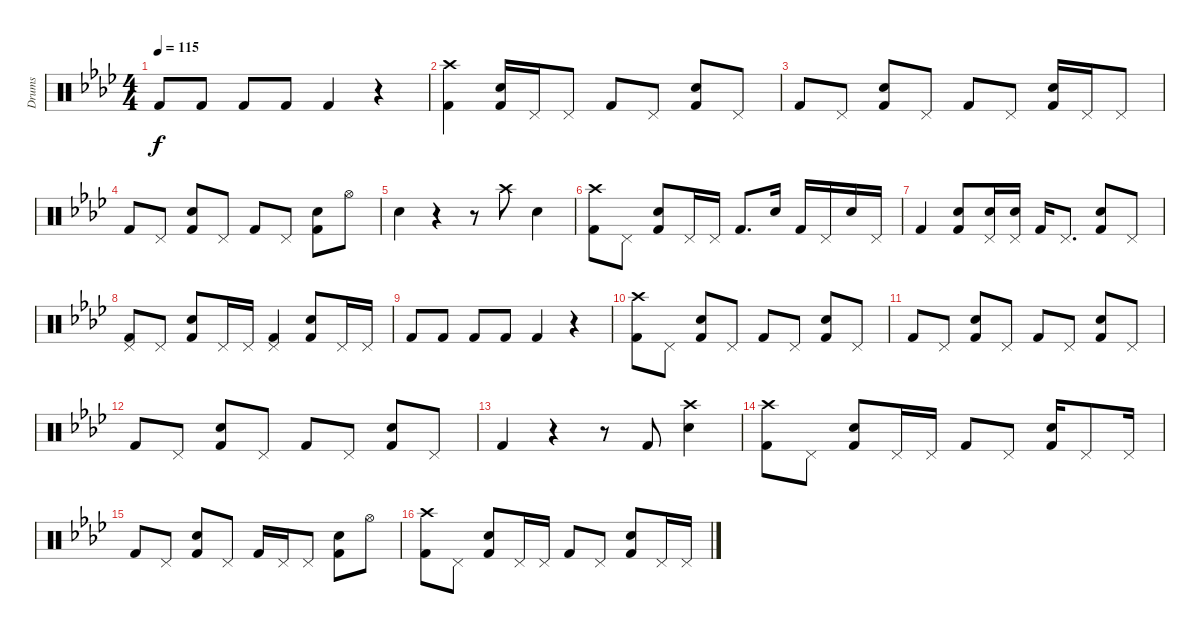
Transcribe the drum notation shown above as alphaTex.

\track ("Drums" "Drums") {instrument percussion}
\staff {score}
\articulation defaults
\ts (4 4)
\tempo 115
\clef neutral
\ks ab "Kick (hit) 2".8{dy f} "Kick (hit) 2".8 "Kick (hit) 2".8 "Kick (hit) 2".8 "Kick (hit) 2".4
r.4 |
("Crash high (hit)" "Kick (hit) 2").4 ("Electric Snare (hit)" "Kick (hit) 2").16 "Pedal Hi-Hat (hit)".16 "Pedal Hi-Hat (hit)".8 "Kick (hit) 2".8 "Pedal Hi-Hat (hit)".8 ("Electric Snare (hit)" "Kick (hit) 2").8 "Pedal Hi-Hat (hit)".8 |
"Kick (hit) 2".8 "Pedal Hi-Hat (hit)".8 ("Electric Snare (hit)" "Kick (hit) 2").8 "Pedal Hi-Hat (hit)".8 "Kick (hit) 2".8 "Pedal Hi-Hat (hit)".8 ("Electric Snare (hit)" "Kick (hit) 2").16 "Pedal Hi-Hat (hit)".16 "Pedal Hi-Hat (hit)".8 |
"Kick (hit) 2".8 "Pedal Hi-Hat (hit)".8 ("Electric Snare (hit)" "Kick (hit) 2").8 "Pedal Hi-Hat (hit)".8 "Kick (hit) 2".8 "Pedal Hi-Hat (hit)".8 ("Electric Snare (hit)" "Kick (hit) 2").8 "Hi-Hat (open)".8 |
"Electric Snare (hit)".4 r.4 r.8 "Crash high (hit)".8 "Electric Snare (hit)".4 |
("Crash high (hit)" "Kick (hit) 2").8 "Pedal Hi-Hat (hit)".8 ("Electric Snare (hit)" "Kick (hit) 2").8 "Pedal Hi-Hat (hit)".16 "Pedal Hi-Hat (hit)".16 "Kick (hit) 2".8{d} "Electric Snare (hit)".16 "Kick (hit) 2".16 "Pedal Hi-Hat (hit)".16 "Electric Snare (hit)".16 "Pedal Hi-Hat (hit)".16 |
"Kick (hit) 2".4 ("Electric Snare (hit)" "Kick (hit) 2").8 ("Pedal Hi-Hat (hit)" "Electric Snare (hit)").16 ("Pedal Hi-Hat (hit)" "Electric Snare (hit)").16 "Kick (hit) 2".16 "Pedal Hi-Hat (hit)".8{d} ("Electric Snare (hit)" "Kick (hit) 2").8 "Pedal Hi-Hat (hit)".8 |
("Pedal Hi-Hat (hit)" "Kick (hit) 2").8 "Pedal Hi-Hat (hit)".8 ("Electric Snare (hit)" "Kick (hit) 2").8 "Pedal Hi-Hat (hit)".16 "Pedal Hi-Hat (hit)".16 ("Pedal Hi-Hat (hit)" "Kick (hit) 2").4 ("Electric Snare (hit)" "Kick (hit) 2").8 "Pedal Hi-Hat (hit)".16 "Pedal Hi-Hat (hit)".16 |
"Kick (hit) 2".8 "Kick (hit) 2".8 "Kick (hit) 2".8 "Kick (hit) 2".8 "Kick (hit) 2".4 r.4 |
("Crash high (hit)" "Kick (hit) 2").8 "Pedal Hi-Hat (hit)".8 ("Electric Snare (hit)" "Kick (hit) 2").8 "Pedal Hi-Hat (hit)".8 "Kick (hit) 2".8 "Pedal Hi-Hat (hit)".8 ("Electric Snare (hit)" "Kick (hit) 2").8 "Pedal Hi-Hat (hit)".8 |
"Kick (hit) 2".8 "Pedal Hi-Hat (hit)".8 ("Electric Snare (hit)" "Kick (hit) 2").8 "Pedal Hi-Hat (hit)".8 "Kick (hit) 2".8 "Pedal Hi-Hat (hit)".8 ("Electric Snare (hit)" "Kick (hit) 2").8 "Pedal Hi-Hat (hit)".8 |
"Kick (hit) 2".8 "Pedal Hi-Hat (hit)".8 ("Electric Snare (hit)" "Kick (hit) 2").8 "Pedal Hi-Hat (hit)".8 "Kick (hit) 2".8 "Pedal Hi-Hat (hit)".8 ("Electric Snare (hit)" "Kick (hit) 2").8 "Pedal Hi-Hat (hit)".8 |
"Kick (hit) 2".4 r.4 r.8 "Kick (hit) 2".8 ("Crash high (hit)" "Electric Snare (hit)").4 |
("Crash high (hit)" "Kick (hit) 2").8 "Pedal Hi-Hat (hit)".8 ("Electric Snare (hit)" "Kick (hit) 2").8 "Pedal Hi-Hat (hit)".16 "Pedal Hi-Hat (hit)".16 "Kick (hit) 2".8 "Pedal Hi-Hat (hit)".8 ("Electric Snare (hit)" "Kick (hit) 2").16 "Pedal Hi-Hat (hit)".8 "Pedal Hi-Hat (hit)".16 |
"Kick (hit) 2".8 "Pedal Hi-Hat (hit)".8 ("Electric Snare (hit)" "Kick (hit) 2").8 "Pedal Hi-Hat (hit)".8 "Kick (hit) 2".16 "Pedal Hi-Hat (hit)".16 "Pedal Hi-Hat (hit)".8 ("Electric Snare (hit)" "Kick (hit) 2").8 "Hi-Hat (open)".8 |
("Crash high (hit)" "Kick (hit) 2").8 "Pedal Hi-Hat (hit)".8 ("Electric Snare (hit)" "Kick (hit) 2").8 "Pedal Hi-Hat (hit)".16 "Pedal Hi-Hat (hit)".16 "Kick (hit) 2".8 "Pedal Hi-Hat (hit)".8 ("Electric Snare (hit)" "Kick (hit) 2").8 "Pedal Hi-Hat (hit)".16 "Pedal Hi-Hat (hit)".16
